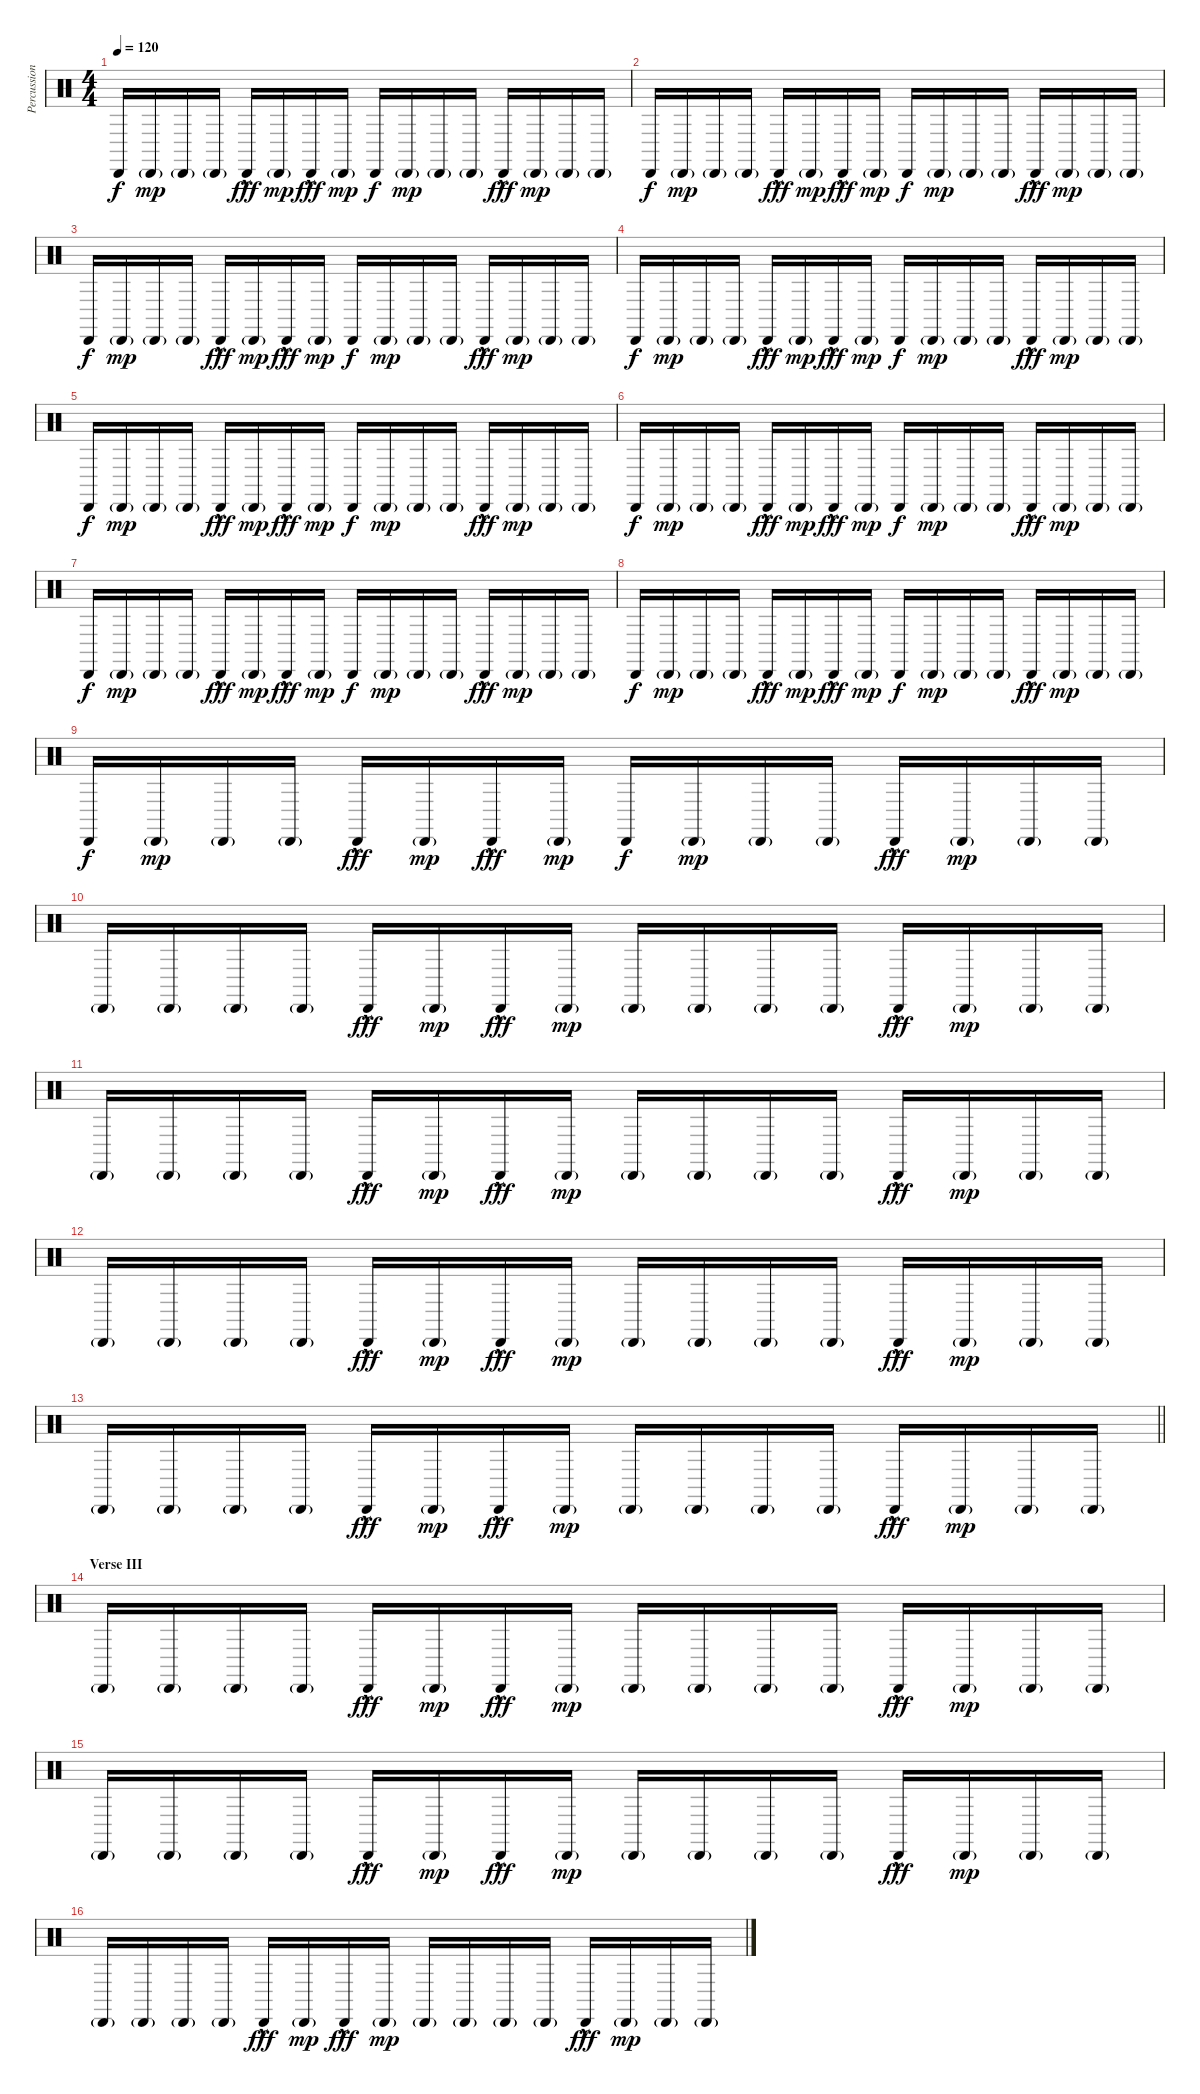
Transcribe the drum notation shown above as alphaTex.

\track ("Percussions" "Percussion") {instrument percussion}
\staff {score}
\articulation defaults
\ts (4 4)
\tempo 120
\clef neutral
\ks c "Cabasa (hit)".16{dy f} "Cabasa (hit)"{g}.16{dy mp} "Cabasa (hit)"{g}.16 "Cabasa (hit)"{g}.16 "Cabasa (hit)"{hac}.16{dy fff} "Cabasa (hit)"{g}.16{dy mp} "Cabasa (hit)"{hac}.16{dy fff} "Cabasa (hit)"{g}.16{dy mp} "Cabasa (hit)".16{dy f} "Cabasa (hit)"{g}.16{dy mp} "Cabasa (hit)"{g}.16 "Cabasa (hit)"{g}.16 "Cabasa (hit)"{hac}.16{dy fff} "Cabasa (hit)"{g}.16{dy mp} "Cabasa (hit)"{g}.16 "Cabasa (hit)"{g}.16
|
"Cabasa (hit)".16{dy f} "Cabasa (hit)"{g}.16{dy mp} "Cabasa (hit)"{g}.16 "Cabasa (hit)"{g}.16 "Cabasa (hit)"{hac}.16{dy fff} "Cabasa (hit)"{g}.16{dy mp} "Cabasa (hit)"{hac}.16{dy fff} "Cabasa (hit)"{g}.16{dy mp} "Cabasa (hit)".16{dy f} "Cabasa (hit)"{g}.16{dy mp} "Cabasa (hit)"{g}.16 "Cabasa (hit)"{g}.16 "Cabasa (hit)"{hac}.16{dy fff} "Cabasa (hit)"{g}.16{dy mp} "Cabasa (hit)"{g}.16 "Cabasa (hit)"{g}.16 |
"Cabasa (hit)".16{dy f} "Cabasa (hit)"{g}.16{dy mp} "Cabasa (hit)"{g}.16 "Cabasa (hit)"{g}.16 "Cabasa (hit)"{hac}.16{dy fff} "Cabasa (hit)"{g}.16{dy mp} "Cabasa (hit)"{hac}.16{dy fff} "Cabasa (hit)"{g}.16{dy mp} "Cabasa (hit)".16{dy f} "Cabasa (hit)"{g}.16{dy mp} "Cabasa (hit)"{g}.16 "Cabasa (hit)"{g}.16 "Cabasa (hit)"{hac}.16{dy fff} "Cabasa (hit)"{g}.16{dy mp} "Cabasa (hit)"{g}.16 "Cabasa (hit)"{g}.16 |
"Cabasa (hit)".16{dy f} "Cabasa (hit)"{g}.16{dy mp} "Cabasa (hit)"{g}.16 "Cabasa (hit)"{g}.16 "Cabasa (hit)"{hac}.16{dy fff} "Cabasa (hit)"{g}.16{dy mp} "Cabasa (hit)"{hac}.16{dy fff} "Cabasa (hit)"{g}.16{dy mp} "Cabasa (hit)".16{dy f} "Cabasa (hit)"{g}.16{dy mp} "Cabasa (hit)"{g}.16 "Cabasa (hit)"{g}.16 "Cabasa (hit)"{hac}.16{dy fff} "Cabasa (hit)"{g}.16{dy mp} "Cabasa (hit)"{g}.16 "Cabasa (hit)"{g}.16 |
"Cabasa (hit)".16{dy f} "Cabasa (hit)"{g}.16{dy mp} "Cabasa (hit)"{g}.16 "Cabasa (hit)"{g}.16 "Cabasa (hit)"{hac}.16{dy fff} "Cabasa (hit)"{g}.16{dy mp} "Cabasa (hit)"{hac}.16{dy fff} "Cabasa (hit)"{g}.16{dy mp} "Cabasa (hit)".16{dy f} "Cabasa (hit)"{g}.16{dy mp} "Cabasa (hit)"{g}.16 "Cabasa (hit)"{g}.16 "Cabasa (hit)"{hac}.16{dy fff} "Cabasa (hit)"{g}.16{dy mp} "Cabasa (hit)"{g}.16 "Cabasa (hit)"{g}.16 |
"Cabasa (hit)".16{dy f} "Cabasa (hit)"{g}.16{dy mp} "Cabasa (hit)"{g}.16 "Cabasa (hit)"{g}.16 "Cabasa (hit)"{hac}.16{dy fff} "Cabasa (hit)"{g}.16{dy mp} "Cabasa (hit)"{hac}.16{dy fff} "Cabasa (hit)"{g}.16{dy mp} "Cabasa (hit)".16{dy f} "Cabasa (hit)"{g}.16{dy mp} "Cabasa (hit)"{g}.16 "Cabasa (hit)"{g}.16 "Cabasa (hit)"{hac}.16{dy fff} "Cabasa (hit)"{g}.16{dy mp} "Cabasa (hit)"{g}.16 "Cabasa (hit)"{g}.16 |
"Cabasa (hit)".16{dy f} "Cabasa (hit)"{g}.16{dy mp} "Cabasa (hit)"{g}.16 "Cabasa (hit)"{g}.16 "Cabasa (hit)"{hac}.16{dy fff} "Cabasa (hit)"{g}.16{dy mp} "Cabasa (hit)"{hac}.16{dy fff} "Cabasa (hit)"{g}.16{dy mp} "Cabasa (hit)".16{dy f} "Cabasa (hit)"{g}.16{dy mp} "Cabasa (hit)"{g}.16 "Cabasa (hit)"{g}.16 "Cabasa (hit)"{hac}.16{dy fff} "Cabasa (hit)"{g}.16{dy mp} "Cabasa (hit)"{g}.16 "Cabasa (hit)"{g}.16 |
"Cabasa (hit)".16{dy f} "Cabasa (hit)"{g}.16{dy mp} "Cabasa (hit)"{g}.16 "Cabasa (hit)"{g}.16 "Cabasa (hit)"{hac}.16{dy fff} "Cabasa (hit)"{g}.16{dy mp} "Cabasa (hit)"{hac}.16{dy fff} "Cabasa (hit)"{g}.16{dy mp} "Cabasa (hit)".16{dy f} "Cabasa (hit)"{g}.16{dy mp} "Cabasa (hit)"{g}.16 "Cabasa (hit)"{g}.16 "Cabasa (hit)"{hac}.16{dy fff} "Cabasa (hit)"{g}.16{dy mp} "Cabasa (hit)"{g}.16 "Cabasa (hit)"{g}.16 |
"Cabasa (hit)".16{dy f} "Cabasa (hit)"{g}.16{dy mp} "Cabasa (hit)"{g}.16 "Cabasa (hit)"{g}.16 "Cabasa (hit)"{hac}.16{dy fff} "Cabasa (hit)"{g}.16{dy mp} "Cabasa (hit)"{hac}.16{dy fff} "Cabasa (hit)"{g}.16{dy mp} "Cabasa (hit)".16{dy f} "Cabasa (hit)"{g}.16{dy mp} "Cabasa (hit)"{g}.16 "Cabasa (hit)"{g}.16 "Cabasa (hit)"{hac}.16{dy fff} "Cabasa (hit)"{g}.16{dy mp} "Cabasa (hit)"{g}.16 "Cabasa (hit)"{g}.16 |
"Cabasa (hit)"{g}.16 "Cabasa (hit)"{g}.16 "Cabasa (hit)"{g}.16 "Cabasa (hit)"{g}.16 "Cabasa (hit)"{hac}.16{dy fff} "Cabasa (hit)"{g}.16{dy mp} "Cabasa (hit)"{hac}.16{dy fff} "Cabasa (hit)"{g}.16{dy mp} "Cabasa (hit)"{g}.16 "Cabasa (hit)"{g}.16 "Cabasa (hit)"{g}.16 "Cabasa (hit)"{g}.16 "Cabasa (hit)"{hac}.16{dy fff} "Cabasa (hit)"{g}.16{dy mp} "Cabasa (hit)"{g}.16 "Cabasa (hit)"{g}.16 |
"Cabasa (hit)"{g}.16 "Cabasa (hit)"{g}.16 "Cabasa (hit)"{g}.16 "Cabasa (hit)"{g}.16 "Cabasa (hit)"{hac}.16{dy fff} "Cabasa (hit)"{g}.16{dy mp} "Cabasa (hit)"{hac}.16{dy fff} "Cabasa (hit)"{g}.16{dy mp} "Cabasa (hit)"{g}.16 "Cabasa (hit)"{g}.16 "Cabasa (hit)"{g}.16 "Cabasa (hit)"{g}.16 "Cabasa (hit)"{hac}.16{dy fff} "Cabasa (hit)"{g}.16{dy mp} "Cabasa (hit)"{g}.16 "Cabasa (hit)"{g}.16 |
"Cabasa (hit)"{g}.16 "Cabasa (hit)"{g}.16 "Cabasa (hit)"{g}.16 "Cabasa (hit)"{g}.16 "Cabasa (hit)"{hac}.16{dy fff} "Cabasa (hit)"{g}.16{dy mp} "Cabasa (hit)"{hac}.16{dy fff} "Cabasa (hit)"{g}.16{dy mp} "Cabasa (hit)"{g}.16 "Cabasa (hit)"{g}.16 "Cabasa (hit)"{g}.16 "Cabasa (hit)"{g}.16 "Cabasa (hit)"{hac}.16{dy fff} "Cabasa (hit)"{g}.16{dy mp} "Cabasa (hit)"{g}.16 "Cabasa (hit)"{g}.16 |
\barLineRight lightlight "Cabasa (hit)"{g}.16 "Cabasa (hit)"{g}.16 "Cabasa (hit)"{g}.16 "Cabasa (hit)"{g}.16 "Cabasa (hit)"{hac}.16{dy fff} "Cabasa (hit)"{g}.16{dy mp} "Cabasa (hit)"{hac}.16{dy fff} "Cabasa (hit)"{g}.16{dy mp} "Cabasa (hit)"{g}.16 "Cabasa (hit)"{g}.16 "Cabasa (hit)"{g}.16 "Cabasa (hit)"{g}.16 "Cabasa (hit)"{hac}.16{dy fff} "Cabasa (hit)"{g}.16{dy mp} "Cabasa (hit)"{g}.16 "Cabasa (hit)"{g}.16
|
\section ("" "Verse III")
"Cabasa (hit)"{g}.16 "Cabasa (hit)"{g}.16 "Cabasa (hit)"{g}.16 "Cabasa (hit)"{g}.16 "Cabasa (hit)"{hac}.16{dy fff} "Cabasa (hit)"{g}.16{dy mp} "Cabasa (hit)"{hac}.16{dy fff} "Cabasa (hit)"{g}.16{dy mp} "Cabasa (hit)"{g}.16 "Cabasa (hit)"{g}.16 "Cabasa (hit)"{g}.16 "Cabasa (hit)"{g}.16 "Cabasa (hit)"{hac}.16{dy fff} "Cabasa (hit)"{g}.16{dy mp} "Cabasa (hit)"{g}.16 "Cabasa (hit)"{g}.16 |
"Cabasa (hit)"{g}.16 "Cabasa (hit)"{g}.16 "Cabasa (hit)"{g}.16 "Cabasa (hit)"{g}.16 "Cabasa (hit)"{hac}.16{dy fff} "Cabasa (hit)"{g}.16{dy mp} "Cabasa (hit)"{hac}.16{dy fff} "Cabasa (hit)"{g}.16{dy mp} "Cabasa (hit)"{g}.16 "Cabasa (hit)"{g}.16 "Cabasa (hit)"{g}.16 "Cabasa (hit)"{g}.16 "Cabasa (hit)"{hac}.16{dy fff} "Cabasa (hit)"{g}.16{dy mp} "Cabasa (hit)"{g}.16 "Cabasa (hit)"{g}.16 |
"Cabasa (hit)"{g}.16 "Cabasa (hit)"{g}.16 "Cabasa (hit)"{g}.16 "Cabasa (hit)"{g}.16 "Cabasa (hit)"{hac}.16{dy fff} "Cabasa (hit)"{g}.16{dy mp} "Cabasa (hit)"{hac}.16{dy fff} "Cabasa (hit)"{g}.16{dy mp} "Cabasa (hit)"{g}.16 "Cabasa (hit)"{g}.16 "Cabasa (hit)"{g}.16 "Cabasa (hit)"{g}.16 "Cabasa (hit)"{hac}.16{dy fff} "Cabasa (hit)"{g}.16{dy mp} "Cabasa (hit)"{g}.16 "Cabasa (hit)"{g}.16
